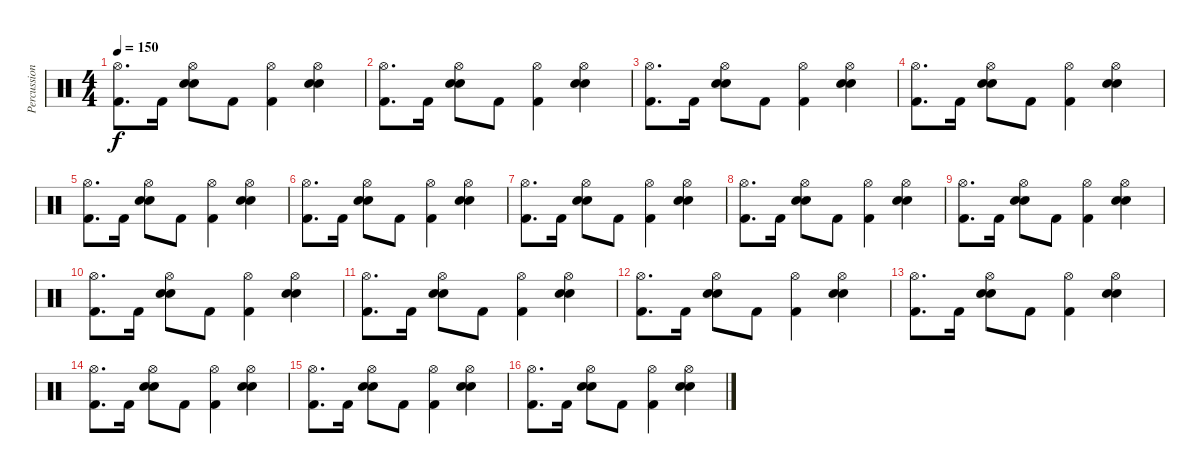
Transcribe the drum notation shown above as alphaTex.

\track ("Percussion" "Percussion") {instrument percussion}
\staff {score}
\articulation defaults
\ts (4 4)
\tempo 150
\clef neutral
\ks c
("Hi-Hat (open)" "Kick (hit) 2").8{d dy f} "Kick (hit) 2".16 ("Hi-Hat (open)" "Snare (hit) 2" "Snare (hit) 2").8 "Kick (hit) 2".8 ("Hi-Hat (open)" "Kick (hit) 2").4 ("Hi-Hat (open)" "Snare (hit) 2" "Snare (hit) 2").4 |
("Hi-Hat (open)" "Kick (hit) 2").8{d} "Kick (hit) 2".16 ("Hi-Hat (open)" "Snare (hit) 2" "Snare (hit) 2").8 "Kick (hit) 2".8 ("Hi-Hat (open)" "Kick (hit) 2").4 ("Hi-Hat (open)" "Snare (hit) 2" "Snare (hit) 2").4 |
("Hi-Hat (open)" "Kick (hit) 2").8{d} "Kick (hit) 2".16 ("Hi-Hat (open)" "Snare (hit) 2" "Snare (hit) 2").8 "Kick (hit) 2".8 ("Hi-Hat (open)" "Kick (hit) 2").4 ("Hi-Hat (open)" "Snare (hit) 2" "Snare (hit) 2").4 |
("Hi-Hat (open)" "Kick (hit) 2").8{d} "Kick (hit) 2".16 ("Hi-Hat (open)" "Snare (hit) 2" "Snare (hit) 2").8 "Kick (hit) 2".8 ("Hi-Hat (open)" "Kick (hit) 2").4 ("Hi-Hat (open)" "Snare (hit) 2" "Snare (hit) 2").4 |
("Hi-Hat (open)" "Kick (hit) 2").8{d} "Kick (hit) 2".16 ("Hi-Hat (open)" "Snare (hit) 2" "Snare (hit) 2").8 "Kick (hit) 2".8 ("Hi-Hat (open)" "Kick (hit) 2").4 ("Hi-Hat (open)" "Snare (hit) 2" "Snare (hit) 2").4 |
("Hi-Hat (open)" "Kick (hit) 2").8{d} "Kick (hit) 2".16 ("Hi-Hat (open)" "Snare (hit) 2" "Snare (hit) 2").8 "Kick (hit) 2".8 ("Hi-Hat (open)" "Kick (hit) 2").4 ("Hi-Hat (open)" "Snare (hit) 2" "Snare (hit) 2").4 |
("Hi-Hat (open)" "Kick (hit) 2").8{d} "Kick (hit) 2".16 ("Hi-Hat (open)" "Snare (hit) 2" "Snare (hit) 2").8 "Kick (hit) 2".8 ("Hi-Hat (open)" "Kick (hit) 2").4 ("Hi-Hat (open)" "Snare (hit) 2" "Snare (hit) 2").4 |
("Hi-Hat (open)" "Kick (hit) 2").8{d} "Kick (hit) 2".16 ("Hi-Hat (open)" "Snare (hit) 2" "Snare (hit) 2").8 "Kick (hit) 2".8 ("Hi-Hat (open)" "Kick (hit) 2").4 ("Hi-Hat (open)" "Snare (hit) 2" "Snare (hit) 2").4 |
("Hi-Hat (open)" "Kick (hit) 2").8{d} "Kick (hit) 2".16 ("Hi-Hat (open)" "Snare (hit) 2" "Snare (hit) 2").8 "Kick (hit) 2".8 ("Hi-Hat (open)" "Kick (hit) 2").4 ("Hi-Hat (open)" "Snare (hit) 2" "Snare (hit) 2").4 |
("Hi-Hat (open)" "Kick (hit) 2").8{d} "Kick (hit) 2".16 ("Hi-Hat (open)" "Snare (hit) 2" "Snare (hit) 2").8 "Kick (hit) 2".8 ("Hi-Hat (open)" "Kick (hit) 2").4 ("Hi-Hat (open)" "Snare (hit) 2" "Snare (hit) 2").4 |
("Hi-Hat (open)" "Kick (hit) 2").8{d} "Kick (hit) 2".16 ("Hi-Hat (open)" "Snare (hit) 2" "Snare (hit) 2").8 "Kick (hit) 2".8 ("Hi-Hat (open)" "Kick (hit) 2").4 ("Hi-Hat (open)" "Snare (hit) 2" "Snare (hit) 2").4 |
("Hi-Hat (open)" "Kick (hit) 2").8{d} "Kick (hit) 2".16 ("Hi-Hat (open)" "Snare (hit) 2" "Snare (hit) 2").8 "Kick (hit) 2".8 ("Hi-Hat (open)" "Kick (hit) 2").4 ("Hi-Hat (open)" "Snare (hit) 2" "Snare (hit) 2").4 |
("Hi-Hat (open)" "Kick (hit) 2").8{d} "Kick (hit) 2".16 ("Hi-Hat (open)" "Snare (hit) 2" "Snare (hit) 2").8 "Kick (hit) 2".8 ("Hi-Hat (open)" "Kick (hit) 2").4 ("Hi-Hat (open)" "Snare (hit) 2" "Snare (hit) 2").4 |
("Hi-Hat (open)" "Kick (hit) 2").8{d} "Kick (hit) 2".16 ("Hi-Hat (open)" "Snare (hit) 2" "Snare (hit) 2").8 "Kick (hit) 2".8 ("Hi-Hat (open)" "Kick (hit) 2").4 ("Hi-Hat (open)" "Snare (hit) 2" "Snare (hit) 2").4 |
("Hi-Hat (open)" "Kick (hit) 2").8{d} "Kick (hit) 2".16 ("Hi-Hat (open)" "Snare (hit) 2" "Snare (hit) 2").8 "Kick (hit) 2".8 ("Hi-Hat (open)" "Kick (hit) 2").4 ("Hi-Hat (open)" "Snare (hit) 2" "Snare (hit) 2").4 |
("Hi-Hat (open)" "Kick (hit) 2").8{d} "Kick (hit) 2".16 ("Hi-Hat (open)" "Snare (hit) 2" "Snare (hit) 2").8 "Kick (hit) 2".8 ("Hi-Hat (open)" "Kick (hit) 2").4 ("Hi-Hat (open)" "Snare (hit) 2" "Snare (hit) 2").4
